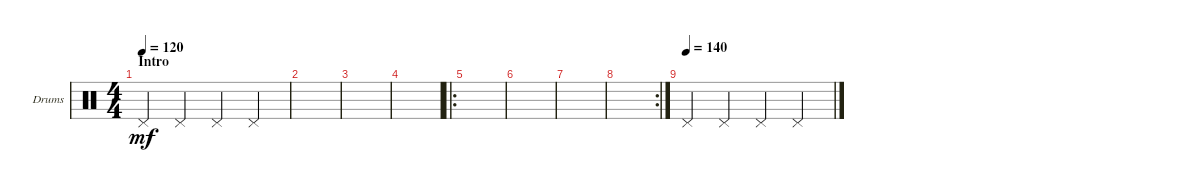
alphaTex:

\defaultSystemsLayout 4
\bracketExtendMode nobrackets
\firstSystemTrackNameOrientation horizontal
\otherSystemsTrackNameOrientation horizontal
\track ("Nazar" "Drums") {instrument percussion}
\staff {score}
\articulation defaults
\ts (4 4)
\section ("" "Intro")
\tempo 120
\clef neutral
\ks c "Pedal Hi-Hat (hit)".4{dy mf} "Pedal Hi-Hat (hit)".4 "Pedal Hi-Hat (hit)".4 "Pedal Hi-Hat (hit)".4
|
|
|
|
\ro
|
|
|
\rc 2
|
\tempo (140)
"Pedal Hi-Hat (hit)".4 "Pedal Hi-Hat (hit)".4 "Pedal Hi-Hat (hit)".4 "Pedal Hi-Hat (hit)".4
